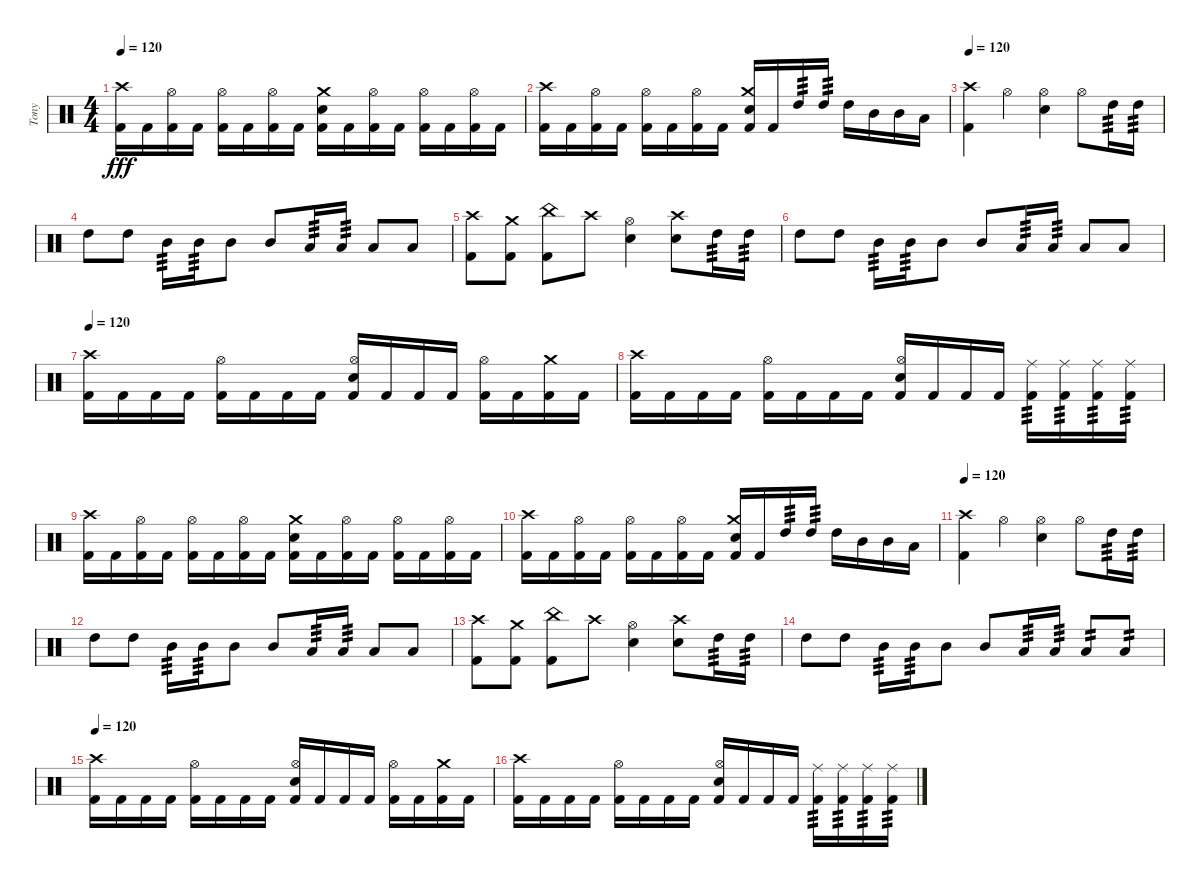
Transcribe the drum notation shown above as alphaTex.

\track ("Tony" "Tony") {instrument percussion}
\staff {score}
\articulation defaults
\ts (4 4)
\tempo 120
\clef neutral
\ks c
("Crash high (hit)" "Kick (hit) 2").16{dy fff} "Kick (hit) 2".16 ("Hi-Hat (open)" "Kick (hit) 2").16 "Kick (hit) 2".16 ("Hi-Hat (open)" "Kick (hit) 2").16 "Kick (hit) 2".16 ("Hi-Hat (open)" "Kick (hit) 2").16 "Kick (hit) 2".16 ("Crash medium (hit)" "Snare (hit) 2" "Kick (hit) 2").16 "Kick (hit) 2".16 ("Hi-Hat (open)" "Kick (hit) 2").16 "Kick (hit) 2".16 ("Hi-Hat (open)" "Kick (hit) 2").16 "Kick (hit) 2".16 ("Hi-Hat (open)" "Kick (hit) 2").16 "Kick (hit) 2".16 |
("Crash high (hit)" "Kick (hit) 2").16 "Kick (hit) 2".16 ("Hi-Hat (open)" "Kick (hit) 2").16 "Kick (hit) 2".16 ("Hi-Hat (open)" "Kick (hit) 2").16 "Kick (hit) 2".16 ("Hi-Hat (open)" "Kick (hit) 2").16 "Kick (hit) 2".16 ("Crash medium (hit)" "Snare (hit) 2" "Kick (hit) 2").16 "Kick (hit) 2".16 "High Tom (hit)".16{tp 3} "High Tom (hit)".16{tp 3} "High Tom (hit)".16 "Mid Tom (hit)".16 "Mid Tom (hit)".16 "Low Tom (hit)".16 |
\tempo 120
("Crash high (hit)" "Kick (hit) 2").4 "Hi-Hat (open)".4 ("Hi-Hat (open)" "Snare (hit) 2").4 "Hi-Hat (open)".8 "High Tom (hit)".16{tp 3} "High Tom (hit)".16{tp 3} |
"High Tom (hit)".8 "High Tom (hit)".8 "Mid Tom (hit)".16{tp 3} "Mid Tom (hit)".16{tp 3} "Mid Tom (hit)".8 "Mid Tom (hit)".8 "Low Tom (hit)".16{tp 3} "Low Tom (hit)".16{tp 3} "Low Tom (hit)".8 "Low Tom (hit)".8 |
("Crash high (hit)" "Kick (hit) 2").8 ("Crash medium (hit)" "Kick (hit) 2").8 ("China (hit)" "Kick (hit) 2").8 "Crash high (hit)".8 ("Hi-Hat (open)" "Snare (hit) 2").4 ("Crash high (hit)" "Snare (hit) 2").8 "High Tom (hit)".16{tp 3} "High Tom (hit)".16{tp 3} |
"High Tom (hit)".8 "High Tom (hit)".8 "Mid Tom (hit)".16{tp 3} "Mid Tom (hit)".16{tp 3} "Mid Tom (hit)".8 "Mid Tom (hit)".8 "Low Tom (hit)".16{tp 3} "Low Tom (hit)".16{tp 3} "Low Tom (hit)".8 "Low Tom (hit)".8 |
\tempo 120
("Crash high (hit)" "Kick (hit) 2").16 "Kick (hit) 2".16 "Kick (hit) 2".16 "Kick (hit) 2".16 ("Hi-Hat (open)" "Kick (hit) 2").16 "Kick (hit) 2".16 "Kick (hit) 2".16 "Kick (hit) 2".16 ("Hi-Hat (open)" "Snare (hit) 2" "Kick (hit) 2").16 "Kick (hit) 2".16 "Kick (hit) 2".16 "Kick (hit) 2".16 ("Hi-Hat (open)" "Kick (hit) 2").16 "Kick (hit) 2".16 ("Crash medium (hit)" "Kick (hit) 2").16 "Kick (hit) 2".16 |
("Crash high (hit)" "Kick (hit) 2").16 "Kick (hit) 2".16 "Kick (hit) 2".16 "Kick (hit) 2".16 ("Hi-Hat (open)" "Kick (hit) 2").16 "Kick (hit) 2".16 "Kick (hit) 2".16 "Kick (hit) 2".16 ("Hi-Hat (open)" "Snare (hit) 2" "Kick (hit) 2").16 "Kick (hit) 2".16 "Kick (hit) 2".16 "Kick (hit) 2".16 ("Ride (middle)" "Kick (hit) 2").16{tp 3} ("Ride (middle)" "Kick (hit) 2").16{tp 3} ("Ride (middle)" "Kick (hit) 2").16{tp 3} ("Ride (middle)" "Kick (hit) 2").16{tp 3} |
("Crash high (hit)" "Kick (hit) 2").16 "Kick (hit) 2".16 ("Hi-Hat (open)" "Kick (hit) 2").16 "Kick (hit) 2".16 ("Hi-Hat (open)" "Kick (hit) 2").16 "Kick (hit) 2".16 ("Hi-Hat (open)" "Kick (hit) 2").16 "Kick (hit) 2".16 ("Crash medium (hit)" "Snare (hit) 2" "Kick (hit) 2").16 "Kick (hit) 2".16 ("Hi-Hat (open)" "Kick (hit) 2").16 "Kick (hit) 2".16 ("Hi-Hat (open)" "Kick (hit) 2").16 "Kick (hit) 2".16 ("Hi-Hat (open)" "Kick (hit) 2").16 "Kick (hit) 2".16 |
("Crash high (hit)" "Kick (hit) 2").16 "Kick (hit) 2".16 ("Hi-Hat (open)" "Kick (hit) 2").16 "Kick (hit) 2".16 ("Hi-Hat (open)" "Kick (hit) 2").16 "Kick (hit) 2".16 ("Hi-Hat (open)" "Kick (hit) 2").16 "Kick (hit) 2".16 ("Crash medium (hit)" "Snare (hit) 2" "Kick (hit) 2").16 "Kick (hit) 2".16 "High Tom (hit)".16{tp 3} "High Tom (hit)".16{tp 3} "High Tom (hit)".16 "Mid Tom (hit)".16 "Mid Tom (hit)".16 "Low Tom (hit)".16 |
\tempo 120
("Crash high (hit)" "Kick (hit) 2").4 "Hi-Hat (open)".4 ("Hi-Hat (open)" "Snare (hit) 2").4 "Hi-Hat (open)".8 "High Tom (hit)".16{tp 3} "High Tom (hit)".16{tp 3} |
"High Tom (hit)".8 "High Tom (hit)".8 "Mid Tom (hit)".16{tp 3} "Mid Tom (hit)".16{tp 3} "Mid Tom (hit)".8 "Mid Tom (hit)".8 "Low Tom (hit)".16{tp 3} "Low Tom (hit)".16{tp 3} "Low Tom (hit)".8 "Low Tom (hit)".8 |
("Crash high (hit)" "Kick (hit) 2").8 ("Crash medium (hit)" "Kick (hit) 2").8 ("China (hit)" "Kick (hit) 2").8 "Crash high (hit)".8 ("Hi-Hat (open)" "Snare (hit) 2").4 ("Crash high (hit)" "Snare (hit) 2").8 "High Tom (hit)".16{tp 3} "High Tom (hit)".16{tp 3} |
"High Tom (hit)".8 "High Tom (hit)".8 "Mid Tom (hit)".16{tp 3} "Mid Tom (hit)".16{tp 3} "Mid Tom (hit)".8 "Mid Tom (hit)".8 "Low Tom (hit)".16{tp 3} "Low Tom (hit)".16{tp 3} "Low Tom (hit)".8{tp 2} "Low Tom (hit)".8{tp 2} |
\tempo 120
("Crash high (hit)" "Kick (hit) 2").16 "Kick (hit) 2".16 "Kick (hit) 2".16 "Kick (hit) 2".16 ("Hi-Hat (open)" "Kick (hit) 2").16 "Kick (hit) 2".16 "Kick (hit) 2".16 "Kick (hit) 2".16 ("Hi-Hat (open)" "Snare (hit) 2" "Kick (hit) 2").16 "Kick (hit) 2".16 "Kick (hit) 2".16 "Kick (hit) 2".16 ("Hi-Hat (open)" "Kick (hit) 2").16 "Kick (hit) 2".16 ("Crash medium (hit)" "Kick (hit) 2").16 "Kick (hit) 2".16 |
("Crash high (hit)" "Kick (hit) 2").16 "Kick (hit) 2".16 "Kick (hit) 2".16 "Kick (hit) 2".16 ("Hi-Hat (open)" "Kick (hit) 2").16 "Kick (hit) 2".16 "Kick (hit) 2".16 "Kick (hit) 2".16 ("Hi-Hat (open)" "Snare (hit) 2" "Kick (hit) 2").16 "Kick (hit) 2".16 "Kick (hit) 2".16 "Kick (hit) 2".16 ("Ride (middle)" "Kick (hit) 2").16{tp 3} ("Ride (middle)" "Kick (hit) 2").16{tp 3} ("Ride (middle)" "Kick (hit) 2").16{tp 3} ("Ride (middle)" "Kick (hit) 2").16{tp 3}
